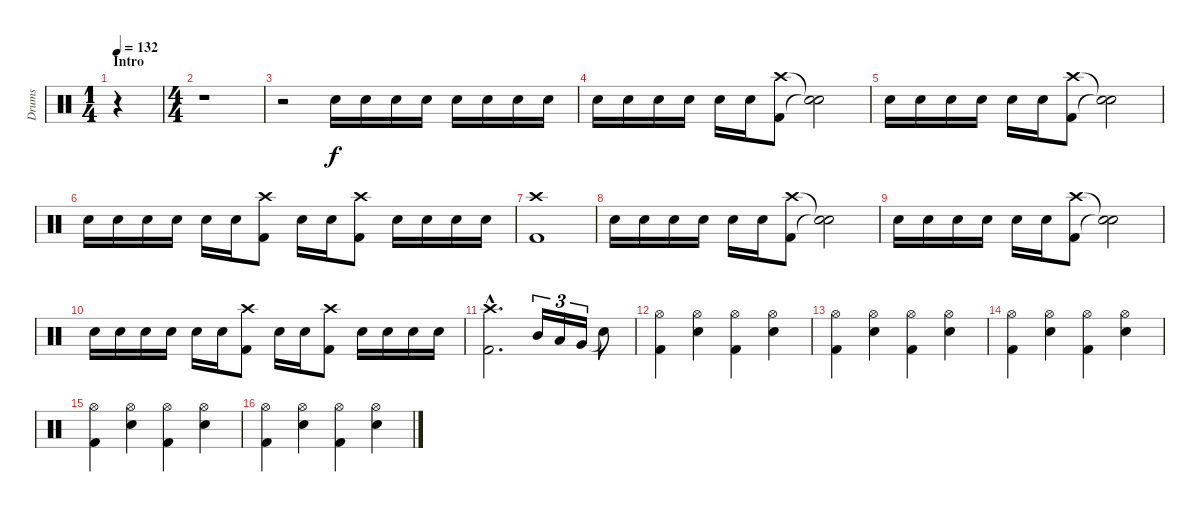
\track ("Drums" "Drums") {instrument percussion}
\staff {score}
\articulation defaults
\ts (1 4)
\section ("" "Intro")
\tempo 132
\clef neutral
\ks c
r.4{dy f} |
\ts (4 4)
r.1 |
r.2 "Snare (hit) 2".16 "Snare (hit) 2".16 "Snare (hit) 2".16 "Snare (hit) 2".16 "Snare (hit) 2".16 "Snare (hit) 2".16 "Snare (hit) 2".16 "Snare (hit) 2".16 |
"Snare (hit) 2".16 "Snare (hit) 2".16 "Snare (hit) 2".16 "Snare (hit) 2".16 "Snare (hit) 2".16 "Snare (hit) 2".16 ("Kick (hit) 2" "Crash high (hit)").8 ("Snare (hit)"{t} "Snare (hit)"{t}).2 |
"Snare (hit) 2".16 "Snare (hit) 2".16 "Snare (hit) 2".16 "Snare (hit) 2".16 "Snare (hit) 2".16 "Snare (hit) 2".16 ("Kick (hit) 2" "Crash high (hit)").8 ("Snare (hit)"{t} "Snare (hit)"{t}).2 |
"Snare (hit) 2".16 "Snare (hit) 2".16 "Snare (hit) 2".16 "Snare (hit) 2".16 "Snare (hit) 2".16 "Snare (hit) 2".16 ("Kick (hit) 2" "Crash high (hit)").8 "Snare (hit) 2".16 "Snare (hit) 2".16 ("Kick (hit) 2" "Crash high (hit)").8 "Snare (hit) 2".16 "Snare (hit) 2".16 "Snare (hit) 2".16 "Snare (hit) 2".16 |
("Kick (hit) 2" "Crash high (hit)").1 |
"Snare (hit) 2".16 "Snare (hit) 2".16 "Snare (hit) 2".16 "Snare (hit) 2".16 "Snare (hit) 2".16 "Snare (hit) 2".16 ("Kick (hit) 2" "Crash high (hit)").8 ("Snare (hit)"{t} "Snare (hit)"{t}).2 |
"Snare (hit) 2".16 "Snare (hit) 2".16 "Snare (hit) 2".16 "Snare (hit) 2".16 "Snare (hit) 2".16 "Snare (hit) 2".16 ("Kick (hit) 2" "Crash high (hit)").8 ("Snare (hit)"{t} "Snare (hit)"{t}).2 |
"Snare (hit) 2".16 "Snare (hit) 2".16 "Snare (hit) 2".16 "Snare (hit) 2".16 "Snare (hit) 2".16 "Snare (hit) 2".16 ("Kick (hit) 2" "Crash high (hit)").8 "Snare (hit) 2".16 "Snare (hit) 2".16 ("Kick (hit) 2" "Crash high (hit)").8 "Snare (hit) 2".16 "Snare (hit) 2".16 "Snare (hit) 2".16 "Snare (hit) 2".16 |
("Kick (hit) 2"{hac} "Crash high (hit)"{hac}).2{d} "Mid Tom (hit)".16{tu (3 2)} "Low Tom (hit)".16{tu (3 2)} "Very Low Tom (hit)".16{tu (3 2)} "Snare (hit)"{t}.8 |
("Kick (hit) 2" "Hi-Hat (open)").4 ("Snare (hit) 2" "Hi-Hat (open)").4 ("Kick (hit) 2" "Hi-Hat (open)").4 ("Snare (hit) 2" "Hi-Hat (open)").4 |
("Kick (hit) 2" "Hi-Hat (open)").4 ("Snare (hit) 2" "Hi-Hat (open)").4 ("Kick (hit) 2" "Hi-Hat (open)").4 ("Snare (hit) 2" "Hi-Hat (open)").4 |
("Kick (hit) 2" "Hi-Hat (open)").4 ("Snare (hit) 2" "Hi-Hat (open)").4 ("Kick (hit) 2" "Hi-Hat (open)").4 ("Snare (hit) 2" "Hi-Hat (open)").4 |
("Kick (hit) 2" "Hi-Hat (open)").4 ("Snare (hit) 2" "Hi-Hat (open)").4 ("Kick (hit) 2" "Hi-Hat (open)").4 ("Snare (hit) 2" "Hi-Hat (open)").4 |
("Kick (hit) 2" "Hi-Hat (open)").4 ("Snare (hit) 2" "Hi-Hat (open)").4 ("Kick (hit) 2" "Hi-Hat (open)").4 ("Snare (hit) 2" "Hi-Hat (open)").4
